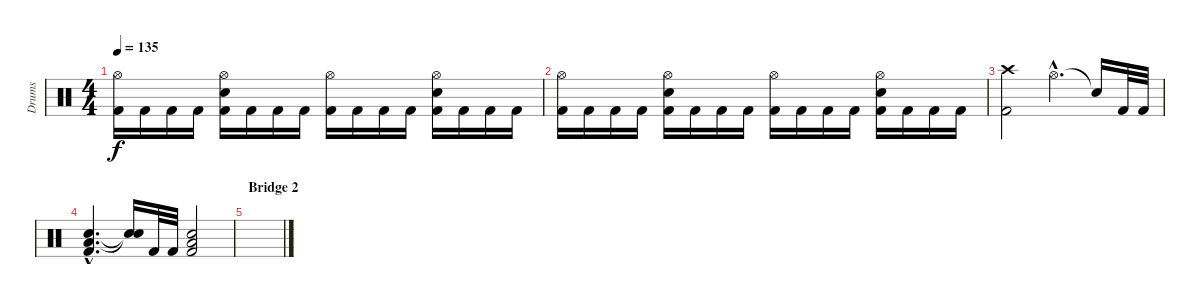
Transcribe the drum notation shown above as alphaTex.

\track ("Drums" "Drums") {instrument percussion}
\staff {score}
\articulation defaults
\ts (4 4)
\tempo 135
\clef neutral
\ks c
("Hi-Hat (open)" "Kick (hit) 2").16{dy f} "Kick (hit) 2".16 "Kick (hit) 2".16 "Kick (hit) 2".16 ("Hi-Hat (open)" "Electric Snare (hit)" "Kick (hit) 2").16 "Kick (hit) 2".16 "Kick (hit) 2".16 "Kick (hit) 2".16 ("Hi-Hat (open)" "Kick (hit) 2").16 "Kick (hit) 2".16 "Kick (hit) 2".16 "Kick (hit) 2".16 ("Hi-Hat (open)" "Electric Snare (hit)" "Kick (hit) 2").16 "Kick (hit) 2".16 "Kick (hit) 2".16 "Kick (hit) 2".16 |
("Hi-Hat (open)" "Kick (hit) 2").16 "Kick (hit) 2".16 "Kick (hit) 2".16 "Kick (hit) 2".16 ("Hi-Hat (open)" "Electric Snare (hit)" "Kick (hit) 2").16 "Kick (hit) 2".16 "Kick (hit) 2".16 "Kick (hit) 2".16 ("Hi-Hat (open)" "Kick (hit) 2").16 "Kick (hit) 2".16 "Kick (hit) 2".16 "Kick (hit) 2".16 ("Hi-Hat (open)" "Electric Snare (hit)" "Kick (hit) 2").16 "Kick (hit) 2".16 "Kick (hit) 2".16 "Kick (hit) 2".16 |
("Crash high (hit)" "Kick (hit) 2").2 "Hi-Hat (open)"{hac}.4{d} "Snare (hit)"{t}.16 "Kick (hit) 2".32 "Kick (hit) 2".32 |
("Electric Snare (hit)"{hac} "Low Floor Tom (hit)"{hac} "Kick (hit) 2"{hac}).4{d} ("Snare (hit)"{t} "Snare (hit)"{t}).16 "Kick (hit) 2".32 "Kick (hit) 2".32 ("Electric Snare (hit)" "Low Floor Tom (hit)" "Kick (hit) 2").2 |
\section ("" "Bridge 2")
